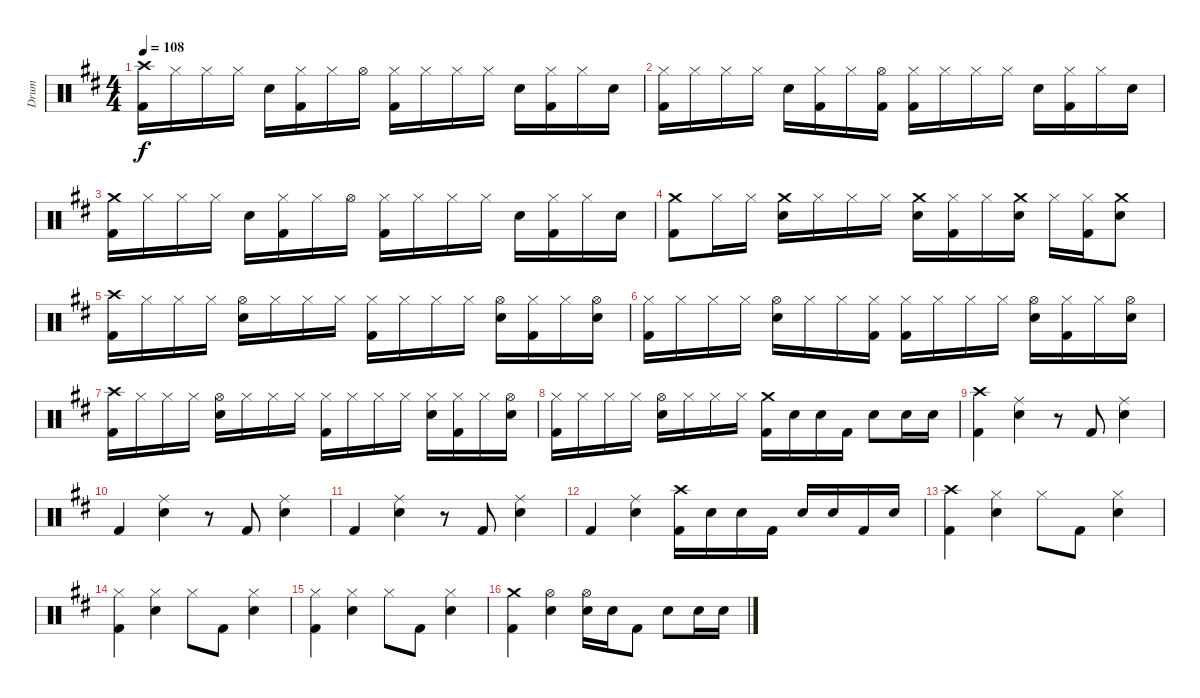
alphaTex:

\track ("Drum" "Drum") {instrument percussion}
\staff {score}
\articulation defaults
\ts (4 4)
\tempo 108
\clef neutral
\ks d
("Crash high (hit)" "Kick (hit) 2").16{dy f} "Hi-Hat (closed)".16 "Hi-Hat (closed)".16 "Hi-Hat (closed)".16 "Snare (hit) 2".16 ("Hi-Hat (closed)" "Kick (hit) 2").16 "Hi-Hat (closed)".16 "Hi-Hat (open)".16 ("Hi-Hat (closed)" "Kick (hit) 2").16 "Hi-Hat (closed)".16 "Hi-Hat (closed)".16 "Hi-Hat (closed)".16 "Snare (hit) 2".16 ("Hi-Hat (closed)" "Kick (hit) 2").16 "Hi-Hat (closed)".16 "Snare (hit) 2".16 |
("Hi-Hat (closed)" "Kick (hit) 2").16 "Hi-Hat (closed)".16 "Hi-Hat (closed)".16 "Hi-Hat (closed)".16 "Snare (hit) 2".16 ("Hi-Hat (closed)" "Kick (hit) 2").16 "Hi-Hat (closed)".16 ("Hi-Hat (open)" "Kick (hit) 2").16 ("Hi-Hat (closed)" "Kick (hit) 2").16 "Hi-Hat (closed)".16 "Hi-Hat (closed)".16 "Hi-Hat (closed)".16 "Snare (hit) 2".16 ("Hi-Hat (closed)" "Kick (hit) 2").16 "Hi-Hat (closed)".16 "Snare (hit) 2".16 |
("Crash medium (hit)" "Kick (hit) 2").16 "Hi-Hat (closed)".16 "Hi-Hat (closed)".16 "Hi-Hat (closed)".16 "Snare (hit) 2".16 ("Hi-Hat (closed)" "Kick (hit) 2").16 "Hi-Hat (closed)".16 "Hi-Hat (open)".16 ("Hi-Hat (closed)" "Kick (hit) 2").16 "Hi-Hat (closed)".16 "Hi-Hat (closed)".16 "Hi-Hat (closed)".16 "Snare (hit) 2".16 ("Hi-Hat (closed)" "Kick (hit) 2").16 "Hi-Hat (closed)".16 "Snare (hit) 2".16 |
("Crash medium (hit)" "Kick (hit) 2").8 "Hi-Hat (closed)".16 "Hi-Hat (closed)".16 ("Crash medium (hit)" "Snare (hit) 2").16 "Hi-Hat (closed)".16 "Hi-Hat (closed)".16 "Hi-Hat (closed)".16 ("Crash medium (hit)" "Snare (hit) 2").16 ("Hi-Hat (closed)" "Kick (hit) 2").16 "Hi-Hat (closed)".16 ("Crash medium (hit)" "Snare (hit) 2").16 "Hi-Hat (closed)".16 ("Hi-Hat (closed)" "Kick (hit) 2").16 ("Crash medium (hit)" "Snare (hit) 2").8 |
("Crash high (hit)" "Kick (hit) 2").16 "Hi-Hat (closed)".16 "Hi-Hat (closed)".16 "Hi-Hat (closed)".16 ("Hi-Hat (open)" "Snare (hit) 2").16 "Hi-Hat (closed)".16 "Hi-Hat (closed)".16 "Hi-Hat (closed)".16 ("Hi-Hat (closed)" "Kick (hit) 2").16 "Hi-Hat (closed)".16 "Hi-Hat (closed)".16 "Hi-Hat (closed)".16 ("Hi-Hat (open)" "Snare (hit) 2").16 ("Hi-Hat (closed)" "Kick (hit) 2").16 "Hi-Hat (closed)".16 ("Hi-Hat (open)" "Snare (hit) 2").16 |
("Hi-Hat (closed)" "Kick (hit) 2").16 "Hi-Hat (closed)".16 "Hi-Hat (closed)".16 "Hi-Hat (closed)".16 ("Hi-Hat (open)" "Snare (hit) 2").16 "Hi-Hat (closed)".16 "Hi-Hat (closed)".16 ("Hi-Hat (closed)" "Kick (hit) 2").16 ("Hi-Hat (closed)" "Kick (hit) 2").16 "Hi-Hat (closed)".16 "Hi-Hat (closed)".16 "Hi-Hat (closed)".16 ("Hi-Hat (open)" "Snare (hit) 2").16 ("Hi-Hat (closed)" "Kick (hit) 2").16 "Hi-Hat (closed)".16 ("Hi-Hat (open)" "Snare (hit) 2").16 |
("Crash high (hit)" "Kick (hit) 2").16 "Hi-Hat (closed)".16 "Hi-Hat (closed)".16 "Hi-Hat (closed)".16 ("Hi-Hat (open)" "Snare (hit) 2").16 "Hi-Hat (closed)".16 "Hi-Hat (closed)".16 "Hi-Hat (closed)".16 ("Hi-Hat (closed)" "Kick (hit) 2").16 "Hi-Hat (closed)".16 "Hi-Hat (closed)".16 "Hi-Hat (closed)".16 ("Hi-Hat (closed)" "Snare (hit) 2").16 ("Hi-Hat (closed)" "Kick (hit) 2").16 "Hi-Hat (closed)".16 ("Hi-Hat (open)" "Snare (hit) 2").16 |
("Hi-Hat (closed)" "Kick (hit) 2").16 "Hi-Hat (closed)".16 "Hi-Hat (closed)".16 "Hi-Hat (closed)".16 ("Hi-Hat (open)" "Snare (hit) 2").16 "Hi-Hat (closed)".16 "Hi-Hat (closed)".16 "Hi-Hat (closed)".16 ("Crash medium (hit)" "Kick (hit) 2").16 "Snare (hit) 2".16 "Snare (hit) 2".16 "Kick (hit) 2".16 "Snare (hit) 2".8 "Snare (hit) 2".16 "Snare (hit) 2".16 |
("Crash high (hit)" "Kick (hit) 2").4 ("Ride (middle)" "Snare (hit) 2").4 r.8 "Kick (hit) 2".8 ("Ride (middle)" "Snare (hit) 2").4 |
"Kick (hit) 2".4 ("Ride (middle)" "Snare (hit) 2").4 r.8 "Kick (hit) 2".8 ("Ride (middle)" "Snare (hit) 2").4 |
"Kick (hit) 2".4 ("Ride (middle)" "Snare (hit) 2").4 r.8 "Kick (hit) 2".8 ("Ride (middle)" "Snare (hit) 2").4 |
"Kick (hit) 2".4 ("Ride (middle)" "Snare (hit) 2").4 ("Crash high (hit)" "Kick (hit) 2").16 "Snare (hit) 2".16 "Snare (hit) 2".16 "Kick (hit) 2".16 "Snare (hit) 2".16 "Snare (hit) 2".16 "Kick (hit) 2".16 "Snare (hit) 2".16 |
("Crash high (hit)" "Kick (hit) 2").4 ("Hi-Hat (closed)" "Snare (hit) 2").4 "Hi-Hat (closed)".8 "Kick (hit) 2".8 ("Hi-Hat (closed)" "Snare (hit) 2").4 |
("Hi-Hat (closed)" "Kick (hit) 2").4 ("Hi-Hat (closed)" "Snare (hit) 2").4 "Hi-Hat (closed)".8 "Kick (hit) 2".8 ("Hi-Hat (closed)" "Snare (hit) 2").4 |
("Hi-Hat (closed)" "Kick (hit) 2").4 ("Hi-Hat (closed)" "Snare (hit) 2").4 "Hi-Hat (closed)".8 "Kick (hit) 2".8 ("Hi-Hat (closed)" "Snare (hit) 2").4 |
("Crash medium (hit)" "Kick (hit) 2").4 ("Hi-Hat (open)" "Snare (hit) 2").4 ("Hi-Hat (open)" "Snare (hit) 2").16 "Snare (hit) 2".16 "Kick (hit) 2".8 "Snare (hit) 2".8 "Snare (hit) 2".16 "Snare (hit) 2".16
